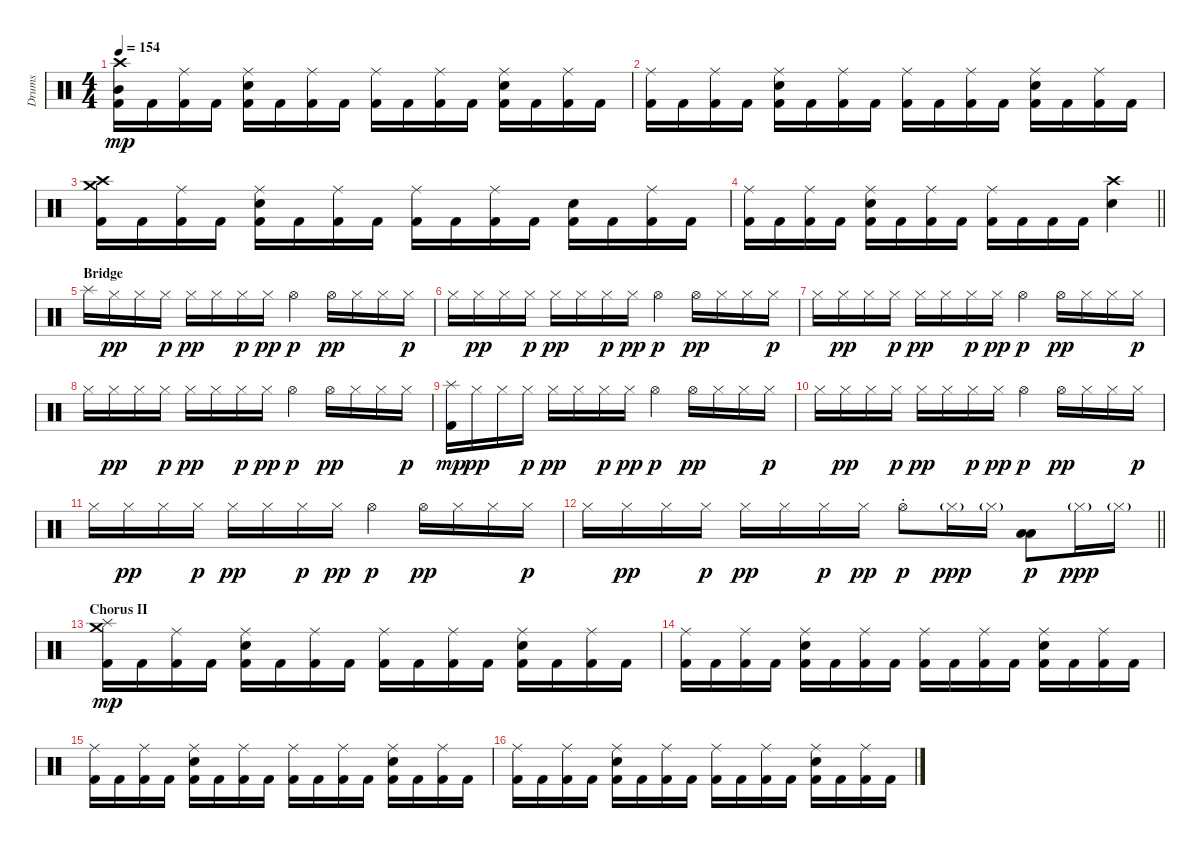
\track ("Drums" "Drums") {instrument percussion}
\staff {score}
\articulation defaults
\ts (4 4)
\tempo 154
\clef neutral
\ks c
("Crash high (hit)" "Mid Tom (hit)" "Kick (hit) 2").16{dy mp} "Kick (hit) 2".16 ("Ride (middle)" "Kick (hit) 2").16 "Kick (hit) 2".16 ("Ride (middle)" "Electric Snare (hit)" "Kick (hit) 2").16 "Kick (hit) 2".16 ("Ride (middle)" "Kick (hit) 2").16 "Kick (hit) 2".16 ("Ride (middle)" "Kick (hit) 2").16 "Kick (hit) 2".16 ("Ride (middle)" "Kick (hit) 2").16 "Kick (hit) 2".16 ("Ride (middle)" "Electric Snare (hit)" "Kick (hit) 2").16 "Kick (hit) 2".16 ("Ride (middle)" "Kick (hit) 2").16 "Kick (hit) 2".16 |
("Ride (middle)" "Kick (hit) 2").16 "Kick (hit) 2".16 ("Ride (middle)" "Kick (hit) 2").16 "Kick (hit) 2".16 ("Ride (middle)" "Electric Snare (hit)" "Kick (hit) 2").16 "Kick (hit) 2".16 ("Ride (middle)" "Kick (hit) 2").16 "Kick (hit) 2".16 ("Ride (middle)" "Kick (hit) 2").16 "Kick (hit) 2".16 ("Ride (middle)" "Kick (hit) 2").16 "Kick (hit) 2".16 ("Ride (middle)" "Electric Snare (hit)" "Kick (hit) 2").16 "Kick (hit) 2".16 ("Ride (middle)" "Kick (hit) 2").16 "Kick (hit) 2".16 |
("Crash high (hit)" "Crash medium (hit)" "Kick (hit) 2").16 "Kick (hit) 2".16 ("Ride (middle)" "Kick (hit) 2").16 "Kick (hit) 2".16 ("Ride (middle)" "Electric Snare (hit)" "Kick (hit) 2").16 "Kick (hit) 2".16 ("Ride (middle)" "Kick (hit) 2").16 "Kick (hit) 2".16 ("Ride (middle)" "Kick (hit) 2").16 "Kick (hit) 2".16 ("Ride (middle)" "Kick (hit) 2").16 "Kick (hit) 2".16 ("Electric Snare (hit)" "Kick (hit) 2").16 "Kick (hit) 2".16 ("Ride (middle)" "Kick (hit) 2").16 "Kick (hit) 2".16 |
\barLineRight lightlight
("Ride (middle)" "Kick (hit) 2").16 "Kick (hit) 2".16 ("Ride (middle)" "Kick (hit) 2").16 "Kick (hit) 2".16 ("Ride (middle)" "Electric Snare (hit)" "Kick (hit) 2").16 "Kick (hit) 2".16 ("Ride (middle)" "Kick (hit) 2").16 "Kick (hit) 2".16 ("Ride (middle)" "Kick (hit) 2").16 "Kick (hit) 2".16 "Kick (hit) 2".16 "Kick (hit) 2".16 ("Crash high (hit)" "Electric Snare (hit)").4 |
\section ("" "Bridge")
"Splash (hit)".16 "Hi-Hat (closed)".16{dy pp} "Hi-Hat (closed)".16 "Hi-Hat (closed)".16{dy p} "Hi-Hat (closed)".16{dy pp} "Hi-Hat (closed)".16 "Hi-Hat (closed)".16{dy p} "Hi-Hat (closed)".16{dy pp} "Hi-Hat (open)".4{dy p} "Hi-Hat (open)".16{dy pp} "Hi-Hat (closed)".16 "Hi-Hat (closed)".16 "Hi-Hat (closed)".16{dy p} |
"Hi-Hat (closed)".16 "Hi-Hat (closed)".16{dy pp} "Hi-Hat (closed)".16 "Hi-Hat (closed)".16{dy p} "Hi-Hat (closed)".16{dy pp} "Hi-Hat (closed)".16 "Hi-Hat (closed)".16{dy p} "Hi-Hat (closed)".16{dy pp} "Hi-Hat (open)".4{dy p} "Hi-Hat (open)".16{dy pp} "Hi-Hat (closed)".16 "Hi-Hat (closed)".16 "Hi-Hat (closed)".16{dy p} |
"Hi-Hat (closed)".16 "Hi-Hat (closed)".16{dy pp} "Hi-Hat (closed)".16 "Hi-Hat (closed)".16{dy p} "Hi-Hat (closed)".16{dy pp} "Hi-Hat (closed)".16 "Hi-Hat (closed)".16{dy p} "Hi-Hat (closed)".16{dy pp} "Hi-Hat (open)".4{dy p} "Hi-Hat (open)".16{dy pp} "Hi-Hat (closed)".16 "Hi-Hat (closed)".16 "Hi-Hat (closed)".16{dy p} |
"Hi-Hat (closed)".16 "Hi-Hat (closed)".16{dy pp} "Hi-Hat (closed)".16 "Hi-Hat (closed)".16{dy p} "Hi-Hat (closed)".16{dy pp} "Hi-Hat (closed)".16 "Hi-Hat (closed)".16{dy p} "Hi-Hat (closed)".16{dy pp} "Hi-Hat (open)".4{dy p} "Hi-Hat (open)".16{dy pp} "Hi-Hat (closed)".16 "Hi-Hat (closed)".16 "Hi-Hat (closed)".16{dy p} |
("Splash (hit)" "Kick (hit) 2").16{dy mp} "Hi-Hat (closed)".16{dy pp} "Hi-Hat (closed)".16 "Hi-Hat (closed)".16{dy p} "Hi-Hat (closed)".16{dy pp} "Hi-Hat (closed)".16 "Hi-Hat (closed)".16{dy p} "Hi-Hat (closed)".16{dy pp} "Hi-Hat (open)".4{dy p} "Hi-Hat (open)".16{dy pp} "Hi-Hat (closed)".16 "Hi-Hat (closed)".16 "Hi-Hat (closed)".16{dy p} |
"Hi-Hat (closed)".16 "Hi-Hat (closed)".16{dy pp} "Hi-Hat (closed)".16 "Hi-Hat (closed)".16{dy p} "Hi-Hat (closed)".16{dy pp} "Hi-Hat (closed)".16 "Hi-Hat (closed)".16{dy p} "Hi-Hat (closed)".16{dy pp} "Hi-Hat (open)".4{dy p} "Hi-Hat (open)".16{dy pp} "Hi-Hat (closed)".16 "Hi-Hat (closed)".16 "Hi-Hat (closed)".16{dy p} |
"Hi-Hat (closed)".16 "Hi-Hat (closed)".16{dy pp} "Hi-Hat (closed)".16 "Hi-Hat (closed)".16{dy p} "Hi-Hat (closed)".16{dy pp} "Hi-Hat (closed)".16 "Hi-Hat (closed)".16{dy p} "Hi-Hat (closed)".16{dy pp} "Hi-Hat (open)".4{dy p} "Hi-Hat (open)".16{dy pp} "Hi-Hat (closed)".16 "Hi-Hat (closed)".16 "Hi-Hat (closed)".16{dy p} |
\barLineRight lightlight "Hi-Hat (closed)".16 "Hi-Hat (closed)".16{dy pp} "Hi-Hat (closed)".16 "Hi-Hat (closed)".16{dy p} "Hi-Hat (closed)".16{dy pp} "Hi-Hat (closed)".16 "Hi-Hat (closed)".16{dy p} "Hi-Hat (closed)".16{dy pp} "Hi-Hat (open)"{st}.8{dy p} "Hi-Hat (closed)"{g}.16{dy ppp} "Hi-Hat (closed)"{g}.16
("Low Tom (hit)" "Low Floor Tom (hit)").8{dy p} "Hi-Hat (closed)"{g}.16{dy ppp} "Hi-Hat (closed)"{g}.16 |
\section ("" "Chorus II")
("Crash medium (hit)" "Splash (hit)" "Kick (hit) 2").16{dy mp} "Kick (hit) 2".16 ("Ride (middle)" "Kick (hit) 2").16 "Kick (hit) 2".16 ("Ride (middle)" "Electric Snare (hit)" "Kick (hit) 2").16 "Kick (hit) 2".16 ("Ride (middle)" "Kick (hit) 2").16 "Kick (hit) 2".16 ("Ride (middle)" "Kick (hit) 2").16 "Kick (hit) 2".16 ("Ride (middle)" "Kick (hit) 2").16 "Kick (hit) 2".16 ("Ride (middle)" "Electric Snare (hit)" "Kick (hit) 2").16 "Kick (hit) 2".16 ("Ride (middle)" "Kick (hit) 2").16 "Kick (hit) 2".16 |
("Ride (middle)" "Kick (hit) 2").16 "Kick (hit) 2".16 ("Ride (middle)" "Kick (hit) 2").16 "Kick (hit) 2".16 ("Ride (middle)" "Electric Snare (hit)" "Kick (hit) 2").16 "Kick (hit) 2".16 ("Ride (middle)" "Kick (hit) 2").16 "Kick (hit) 2".16 ("Ride (middle)" "Kick (hit) 2").16 "Kick (hit) 2".16 ("Ride (middle)" "Kick (hit) 2").16 "Kick (hit) 2".16 ("Ride (middle)" "Electric Snare (hit)" "Kick (hit) 2").16 "Kick (hit) 2".16 ("Ride (middle)" "Kick (hit) 2").16 "Kick (hit) 2".16 |
("Ride (middle)" "Kick (hit) 2").16 "Kick (hit) 2".16 ("Ride (middle)" "Kick (hit) 2").16 "Kick (hit) 2".16 ("Ride (middle)" "Electric Snare (hit)" "Kick (hit) 2").16 "Kick (hit) 2".16 ("Ride (middle)" "Kick (hit) 2").16 "Kick (hit) 2".16 ("Ride (middle)" "Kick (hit) 2").16 "Kick (hit) 2".16 ("Ride (middle)" "Kick (hit) 2").16 "Kick (hit) 2".16 ("Ride (middle)" "Electric Snare (hit)" "Kick (hit) 2").16 "Kick (hit) 2".16 ("Ride (middle)" "Kick (hit) 2").16 "Kick (hit) 2".16 |
("Ride (middle)" "Kick (hit) 2").16 "Kick (hit) 2".16 ("Ride (middle)" "Kick (hit) 2").16 "Kick (hit) 2".16 ("Ride (middle)" "Electric Snare (hit)" "Kick (hit) 2").16 "Kick (hit) 2".16 ("Ride (middle)" "Kick (hit) 2").16 "Kick (hit) 2".16 ("Ride (middle)" "Kick (hit) 2").16 "Kick (hit) 2".16 ("Ride (middle)" "Kick (hit) 2").16 "Kick (hit) 2".16 ("Ride (middle)" "Electric Snare (hit)" "Kick (hit) 2").16 "Kick (hit) 2".16 ("Ride (middle)" "Kick (hit) 2").16 "Kick (hit) 2".16
